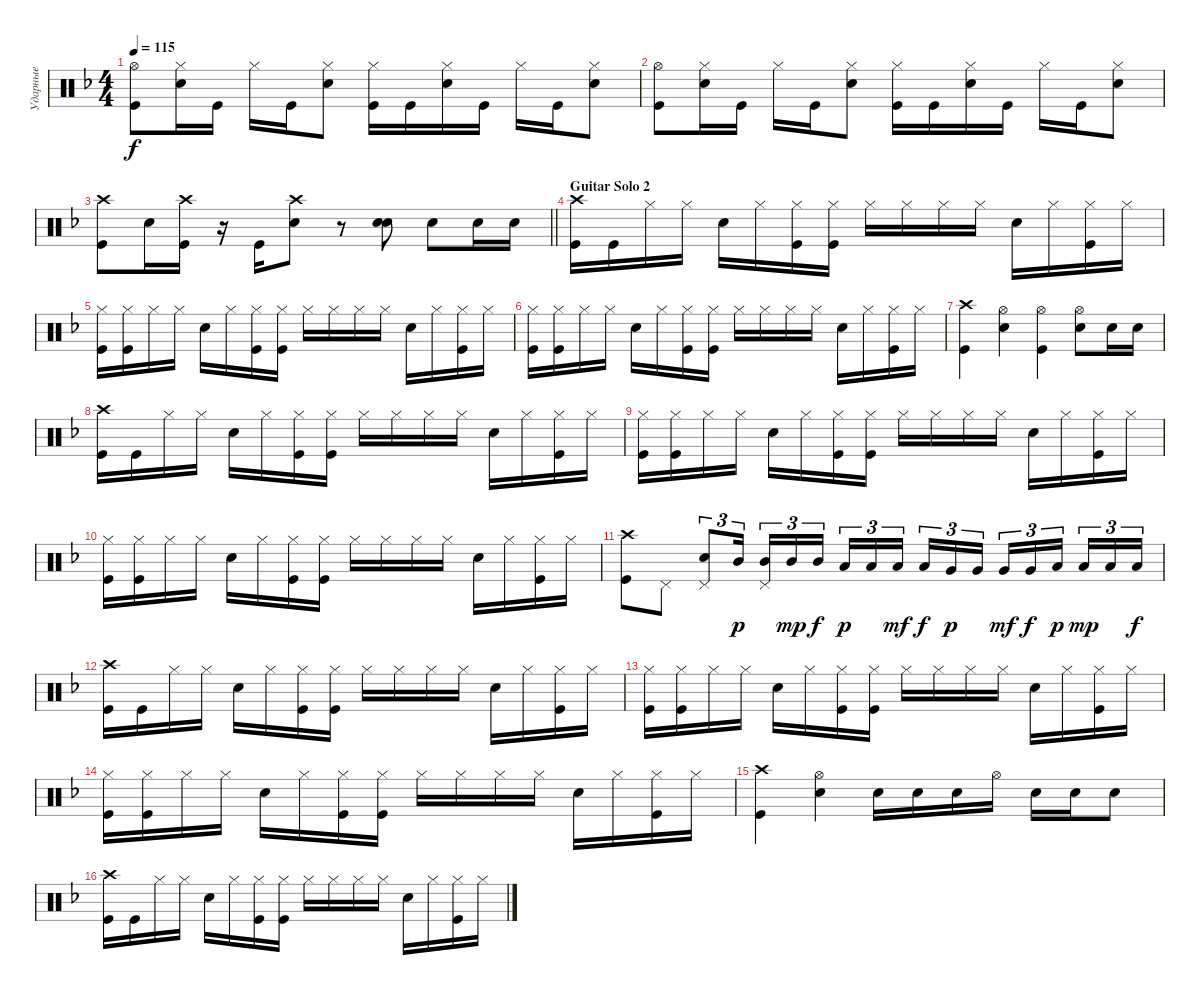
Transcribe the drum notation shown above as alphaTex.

\track ("Ударные" "Ударные") {instrument percussion}
\staff {score}
\articulation defaults
\ts (4 4)
\tempo 115
\clef neutral
\ks dminor
("Kick (hit)" "Hi-Hat (open)").8{dy f} ("Snare (hit) 2" "Hi-Hat (closed)").16 "Kick (hit)".16 "Hi-Hat (closed)".16 "Kick (hit)".16 ("Snare (hit) 2" "Hi-Hat (closed)").8 ("Kick (hit)" "Hi-Hat (closed)").16 "Kick (hit)".16 ("Snare (hit) 2" "Hi-Hat (closed)").16 "Kick (hit)".16 "Hi-Hat (closed)".16 "Kick (hit)".16 ("Snare (hit) 2" "Hi-Hat (closed)").8 |
("Kick (hit)" "Hi-Hat (open)").8 ("Snare (hit) 2" "Hi-Hat (closed)").16 "Kick (hit)".16 "Hi-Hat (closed)".16 "Kick (hit)".16 ("Snare (hit) 2" "Hi-Hat (closed)").8 ("Kick (hit)" "Hi-Hat (closed)").16 "Kick (hit)".16 ("Snare (hit) 2" "Hi-Hat (closed)").16 "Kick (hit)".16 "Hi-Hat (closed)".16 "Kick (hit)".16 ("Snare (hit) 2" "Hi-Hat (closed)").8 |
\barLineRight lightlight
("Kick (hit)" "Crash high (hit)").8 "Snare (hit) 2".16 ("Kick (hit)" "Crash high (hit)").16 r.16 "Kick (hit)".16 ("Snare (hit) 2" "Crash high (hit)").8 r.8 ("Snare (hit) 2" "Snare (hit) 2").8{bd 240} "Snare (hit) 2".8 "Snare (hit) 2".16 "Snare (hit) 2".16 |
\section ("" "Guitar Solo 2")
("Kick (hit)" "Crash high (hit)").16 "Kick (hit)".16 "Hi-Hat (closed)".16 "Hi-Hat (closed)".16 "Snare (hit) 2".16 "Hi-Hat (closed)".16 ("Hi-Hat (closed)" "Kick (hit)").16 ("Hi-Hat (closed)" "Kick (hit)").16 "Hi-Hat (closed)".16 "Hi-Hat (closed)".16 "Hi-Hat (closed)".16 "Hi-Hat (closed)".16 "Snare (hit) 2".16 "Hi-Hat (closed)".16 ("Hi-Hat (closed)" "Kick (hit)").16 "Hi-Hat (closed)".16 |
("Kick (hit)" "Hi-Hat (closed)").16 ("Kick (hit)" "Hi-Hat (closed)").16 "Hi-Hat (closed)".16 "Hi-Hat (closed)".16 "Snare (hit) 2".16 "Hi-Hat (closed)".16 ("Hi-Hat (closed)" "Kick (hit)").16 ("Hi-Hat (closed)" "Kick (hit)").16 "Hi-Hat (closed)".16 "Hi-Hat (closed)".16 "Hi-Hat (closed)".16 "Hi-Hat (closed)".16 "Snare (hit) 2".16 "Hi-Hat (closed)".16 ("Hi-Hat (closed)" "Kick (hit)").16 "Hi-Hat (closed)".16 |
("Kick (hit)" "Hi-Hat (closed)").16 ("Kick (hit)" "Hi-Hat (closed)").16 "Hi-Hat (closed)".16 "Hi-Hat (closed)".16 "Snare (hit) 2".16 "Hi-Hat (closed)".16 ("Hi-Hat (closed)" "Kick (hit)").16 ("Hi-Hat (closed)" "Kick (hit)").16 "Hi-Hat (closed)".16 "Hi-Hat (closed)".16 "Hi-Hat (closed)".16 "Hi-Hat (closed)".16 "Snare (hit) 2".16 "Hi-Hat (closed)".16 ("Hi-Hat (closed)" "Kick (hit)").16 "Hi-Hat (closed)".16 |
("Kick (hit)" "Crash high (hit)").4 ("Snare (hit) 2" "Hi-Hat (open)").4 ("Kick (hit)" "Hi-Hat (open)").4 ("Snare (hit) 2" "Hi-Hat (open)").8 "Snare (hit) 2".16 "Snare (hit) 2".16 |
("Kick (hit)" "Crash high (hit)").16 "Kick (hit)".16 "Hi-Hat (closed)".16 "Hi-Hat (closed)".16 "Snare (hit) 2".16 "Hi-Hat (closed)".16 ("Hi-Hat (closed)" "Kick (hit)").16 ("Hi-Hat (closed)" "Kick (hit)").16 "Hi-Hat (closed)".16 "Hi-Hat (closed)".16 "Hi-Hat (closed)".16 "Hi-Hat (closed)".16 "Snare (hit) 2".16 "Hi-Hat (closed)".16 ("Hi-Hat (closed)" "Kick (hit)").16 "Hi-Hat (closed)".16 |
("Kick (hit)" "Hi-Hat (closed)").16 ("Kick (hit)" "Hi-Hat (closed)").16 "Hi-Hat (closed)".16 "Hi-Hat (closed)".16 "Snare (hit) 2".16 "Hi-Hat (closed)".16 ("Hi-Hat (closed)" "Kick (hit)").16 ("Hi-Hat (closed)" "Kick (hit)").16 "Hi-Hat (closed)".16 "Hi-Hat (closed)".16 "Hi-Hat (closed)".16 "Hi-Hat (closed)".16 "Snare (hit) 2".16 "Hi-Hat (closed)".16 ("Hi-Hat (closed)" "Kick (hit)").16 "Hi-Hat (closed)".16 |
("Kick (hit)" "Hi-Hat (closed)").16 ("Kick (hit)" "Hi-Hat (closed)").16 "Hi-Hat (closed)".16 "Hi-Hat (closed)".16 "Snare (hit) 2".16 "Hi-Hat (closed)".16 ("Hi-Hat (closed)" "Kick (hit)").16 ("Hi-Hat (closed)" "Kick (hit)").16 "Hi-Hat (closed)".16 "Hi-Hat (closed)".16 "Hi-Hat (closed)".16 "Hi-Hat (closed)".16 "Snare (hit) 2".16 "Hi-Hat (closed)".16 ("Hi-Hat (closed)" "Kick (hit)").16 "Hi-Hat (closed)".16 |
("Kick (hit)" "Crash high (hit)").8 "Pedal Hi-Hat (hit)".8 ("Pedal Hi-Hat (hit)" "Snare (hit) 2").8{tu (3 2)} "Mid Tom (hit)".16{tu (3 2) dy p beam splitsecondary} ("Pedal Hi-Hat (hit)" "Mid Tom (hit)").16{tu (3 2)} "Mid Tom (hit)".16{tu (3 2) dy mp} "Mid Tom (hit)".16{tu (3 2) dy f} "Low Tom (hit)".16{tu (3 2) dy p} "Low Tom (hit)".16{tu (3 2)} "Low Tom (hit)".16{tu (3 2) dy mf beam splitsecondary} "Low Tom (hit)".16{tu (3 2) dy f} "Very Low Tom (hit)".16{tu (3 2) dy p} "Very Low Tom (hit)".16{tu (3 2)} "Very Low Tom (hit)".16{tu (3 2) dy mf} "Very Low Tom (hit)".16{tu (3 2) dy f} "Low Floor Tom (hit)".16{tu (3 2) dy p beam splitsecondary} "Low Floor Tom (hit)".16{tu (3 2) dy mp} "Low Floor Tom (hit)".16{tu (3 2)} "Low Floor Tom (hit)".16{tu (3 2) dy f} |
("Kick (hit)" "Crash high (hit)").16 "Kick (hit)".16 "Hi-Hat (closed)".16 "Hi-Hat (closed)".16 "Snare (hit) 2".16 "Hi-Hat (closed)".16 ("Hi-Hat (closed)" "Kick (hit)").16 ("Hi-Hat (closed)" "Kick (hit)").16 "Hi-Hat (closed)".16 "Hi-Hat (closed)".16 "Hi-Hat (closed)".16 "Hi-Hat (closed)".16 "Snare (hit) 2".16 "Hi-Hat (closed)".16 ("Hi-Hat (closed)" "Kick (hit)").16 "Hi-Hat (closed)".16 |
("Kick (hit)" "Hi-Hat (closed)").16 ("Kick (hit)" "Hi-Hat (closed)").16 "Hi-Hat (closed)".16 "Hi-Hat (closed)".16 "Snare (hit) 2".16 "Hi-Hat (closed)".16 ("Hi-Hat (closed)" "Kick (hit)").16 ("Hi-Hat (closed)" "Kick (hit)").16 "Hi-Hat (closed)".16 "Hi-Hat (closed)".16 "Hi-Hat (closed)".16 "Hi-Hat (closed)".16 "Snare (hit) 2".16 "Hi-Hat (closed)".16 ("Hi-Hat (closed)" "Kick (hit)").16 "Hi-Hat (closed)".16 |
("Kick (hit)" "Hi-Hat (closed)").16 ("Kick (hit)" "Hi-Hat (closed)").16 "Hi-Hat (closed)".16 "Hi-Hat (closed)".16 "Snare (hit) 2".16 "Hi-Hat (closed)".16 ("Hi-Hat (closed)" "Kick (hit)").16 ("Hi-Hat (closed)" "Kick (hit)").16 "Hi-Hat (closed)".16 "Hi-Hat (closed)".16 "Hi-Hat (closed)".16 "Hi-Hat (closed)".16 "Snare (hit) 2".16 "Hi-Hat (closed)".16 ("Hi-Hat (closed)" "Kick (hit)").16 "Hi-Hat (closed)".16 |
("Kick (hit)" "Crash high (hit)").4 ("Snare (hit) 2" "Hi-Hat (open)").4 "Snare (hit) 2".16 "Snare (hit) 2".16 "Snare (hit) 2".16 "Hi-Hat (open)".16 "Snare (hit) 2".16 "Snare (hit) 2".16 "Snare (hit) 2".8 |
("Kick (hit)" "Crash high (hit)").16 "Kick (hit)".16 "Hi-Hat (closed)".16 "Hi-Hat (closed)".16 "Snare (hit) 2".16 "Hi-Hat (closed)".16 ("Hi-Hat (closed)" "Kick (hit)").16 ("Hi-Hat (closed)" "Kick (hit)").16 "Hi-Hat (closed)".16 "Hi-Hat (closed)".16 "Hi-Hat (closed)".16 "Hi-Hat (closed)".16 "Snare (hit) 2".16 "Hi-Hat (closed)".16 ("Hi-Hat (closed)" "Kick (hit)").16 "Hi-Hat (closed)".16
